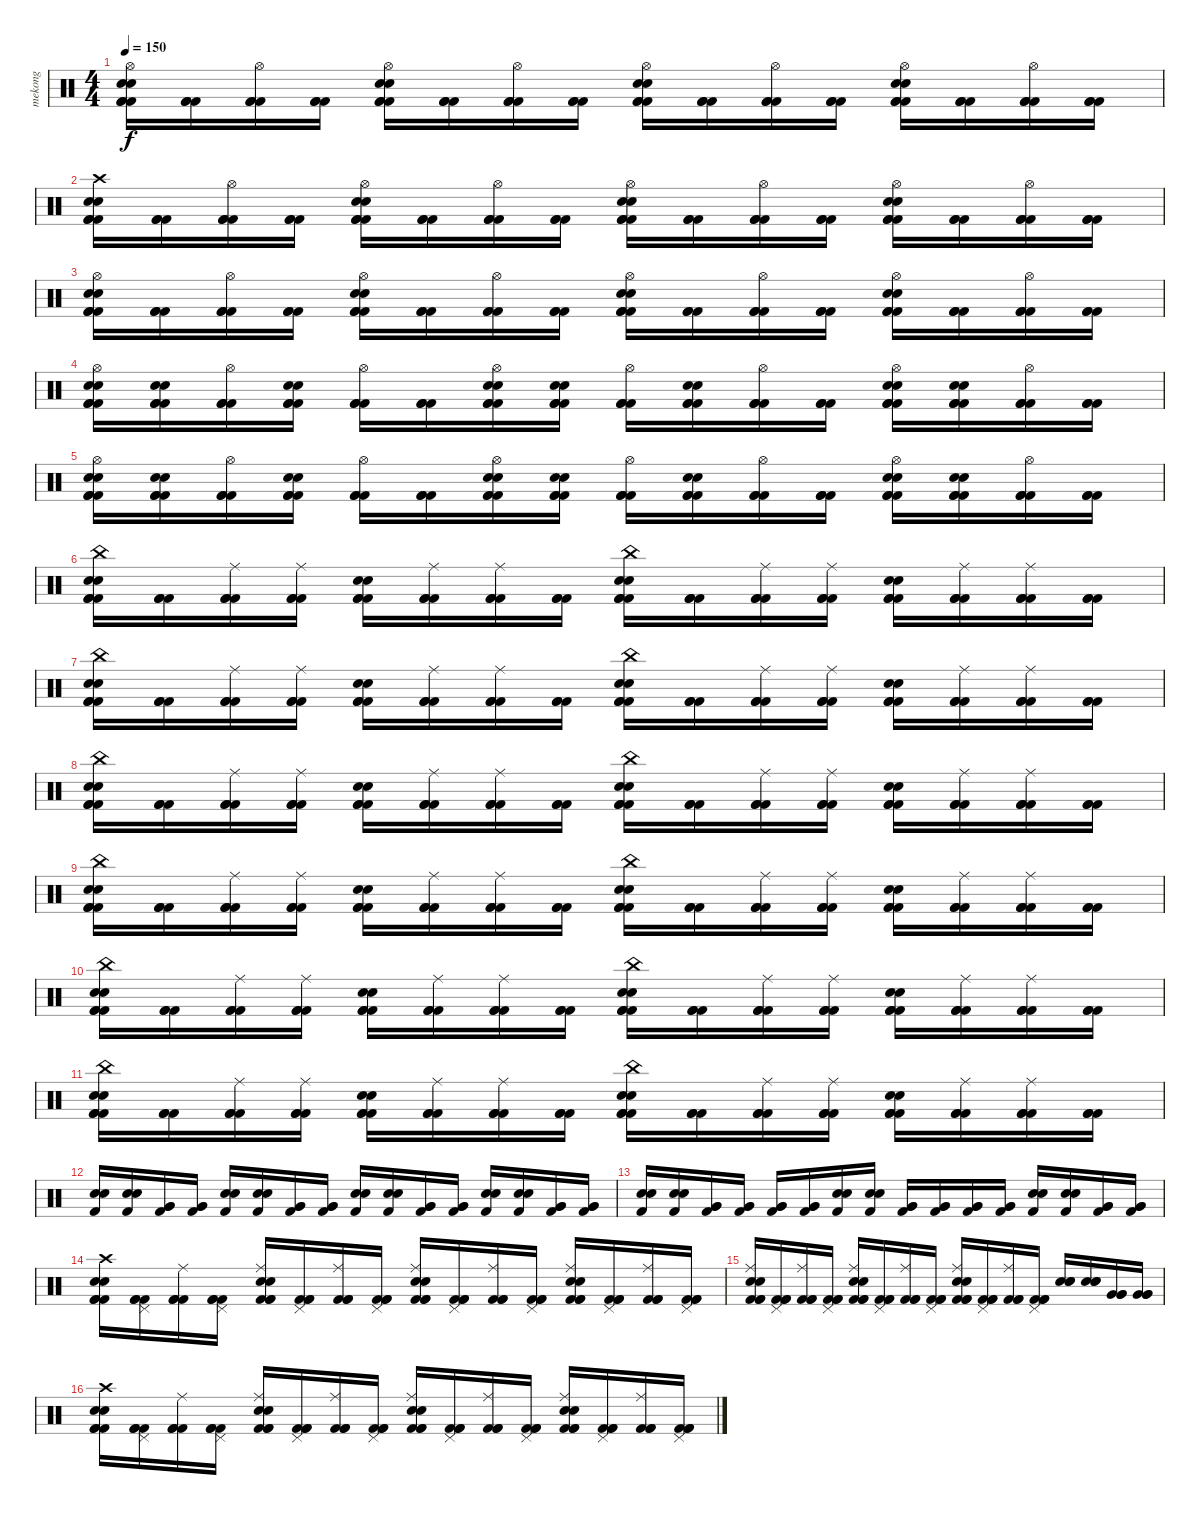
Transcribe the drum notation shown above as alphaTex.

\track ("mekong" "mekong") {instrument percussion}
\staff {score}
\articulation defaults
\ts (4 4)
\tempo 150
\clef neutral
\ks c
("Electric Snare (hit)" "Electric Snare (hit)" "Hi-Hat (open)" "Kick (hit) 2" "Kick (hit) 2" "Kick (hit) 2").16{dy f} ("Kick (hit) 2" "Kick (hit) 2" "Kick (hit) 2").16 ("Hi-Hat (open)" "Kick (hit) 2" "Kick (hit) 2" "Kick (hit) 2").16 ("Kick (hit) 2" "Kick (hit) 2" "Kick (hit) 2").16 ("Electric Snare (hit)" "Electric Snare (hit)" "Hi-Hat (open)" "Kick (hit) 2" "Kick (hit) 2" "Kick (hit) 2").16 ("Kick (hit) 2" "Kick (hit) 2" "Kick (hit) 2").16 ("Hi-Hat (open)" "Kick (hit) 2" "Kick (hit) 2" "Kick (hit) 2").16 ("Kick (hit) 2" "Kick (hit) 2" "Kick (hit) 2").16 ("Electric Snare (hit)" "Electric Snare (hit)" "Hi-Hat (open)" "Kick (hit) 2" "Kick (hit) 2" "Kick (hit) 2").16 ("Kick (hit) 2" "Kick (hit) 2" "Kick (hit) 2").16 ("Hi-Hat (open)" "Kick (hit) 2" "Kick (hit) 2" "Kick (hit) 2").16 ("Kick (hit) 2" "Kick (hit) 2" "Kick (hit) 2").16 ("Electric Snare (hit)" "Electric Snare (hit)" "Hi-Hat (open)" "Kick (hit) 2" "Kick (hit) 2" "Kick (hit) 2").16 ("Kick (hit) 2" "Kick (hit) 2" "Kick (hit) 2").16 ("Hi-Hat (open)" "Kick (hit) 2" "Kick (hit) 2" "Kick (hit) 2").16 ("Kick (hit) 2" "Kick (hit) 2" "Kick (hit) 2").16 |
("Electric Snare (hit)" "Electric Snare (hit)" "Crash high (hit)" "Kick (hit) 2" "Kick (hit) 2" "Kick (hit) 2").16 ("Kick (hit) 2" "Kick (hit) 2" "Kick (hit) 2").16 ("Hi-Hat (open)" "Kick (hit) 2" "Kick (hit) 2" "Kick (hit) 2").16 ("Kick (hit) 2" "Kick (hit) 2" "Kick (hit) 2").16 ("Electric Snare (hit)" "Electric Snare (hit)" "Hi-Hat (open)" "Kick (hit) 2" "Kick (hit) 2" "Kick (hit) 2").16 ("Kick (hit) 2" "Kick (hit) 2" "Kick (hit) 2").16 ("Hi-Hat (open)" "Kick (hit) 2" "Kick (hit) 2" "Kick (hit) 2").16 ("Kick (hit) 2" "Kick (hit) 2" "Kick (hit) 2").16 ("Electric Snare (hit)" "Electric Snare (hit)" "Hi-Hat (open)" "Kick (hit) 2" "Kick (hit) 2" "Kick (hit) 2").16 ("Kick (hit) 2" "Kick (hit) 2" "Kick (hit) 2").16 ("Hi-Hat (open)" "Kick (hit) 2" "Kick (hit) 2" "Kick (hit) 2").16 ("Kick (hit) 2" "Kick (hit) 2" "Kick (hit) 2").16 ("Electric Snare (hit)" "Electric Snare (hit)" "Hi-Hat (open)" "Kick (hit) 2" "Kick (hit) 2" "Kick (hit) 2").16 ("Kick (hit) 2" "Kick (hit) 2" "Kick (hit) 2").16 ("Hi-Hat (open)" "Kick (hit) 2" "Kick (hit) 2" "Kick (hit) 2").16 ("Kick (hit) 2" "Kick (hit) 2" "Kick (hit) 2").16 |
("Electric Snare (hit)" "Electric Snare (hit)" "Hi-Hat (open)" "Kick (hit) 2" "Kick (hit) 2" "Kick (hit) 2").16 ("Kick (hit) 2" "Kick (hit) 2" "Kick (hit) 2").16 ("Hi-Hat (open)" "Kick (hit) 2" "Kick (hit) 2" "Kick (hit) 2").16 ("Kick (hit) 2" "Kick (hit) 2" "Kick (hit) 2").16 ("Electric Snare (hit)" "Electric Snare (hit)" "Hi-Hat (open)" "Kick (hit) 2" "Kick (hit) 2" "Kick (hit) 2").16 ("Kick (hit) 2" "Kick (hit) 2" "Kick (hit) 2").16 ("Hi-Hat (open)" "Kick (hit) 2" "Kick (hit) 2" "Kick (hit) 2").16 ("Kick (hit) 2" "Kick (hit) 2" "Kick (hit) 2").16 ("Electric Snare (hit)" "Electric Snare (hit)" "Hi-Hat (open)" "Kick (hit) 2" "Kick (hit) 2" "Kick (hit) 2").16 ("Kick (hit) 2" "Kick (hit) 2" "Kick (hit) 2").16 ("Hi-Hat (open)" "Kick (hit) 2" "Kick (hit) 2" "Kick (hit) 2").16 ("Kick (hit) 2" "Kick (hit) 2" "Kick (hit) 2").16 ("Electric Snare (hit)" "Electric Snare (hit)" "Hi-Hat (open)" "Kick (hit) 2" "Kick (hit) 2" "Kick (hit) 2").16 ("Kick (hit) 2" "Kick (hit) 2" "Kick (hit) 2").16 ("Hi-Hat (open)" "Kick (hit) 2" "Kick (hit) 2" "Kick (hit) 2").16 ("Kick (hit) 2" "Kick (hit) 2" "Kick (hit) 2").16 |
("Electric Snare (hit)" "Electric Snare (hit)" "Hi-Hat (open)" "Kick (hit) 2" "Kick (hit) 2" "Kick (hit) 2").16 ("Electric Snare (hit)" "Electric Snare (hit)" "Kick (hit) 2" "Kick (hit) 2" "Kick (hit) 2").16 ("Hi-Hat (open)" "Kick (hit) 2" "Kick (hit) 2" "Kick (hit) 2").16 ("Electric Snare (hit)" "Electric Snare (hit)" "Kick (hit) 2" "Kick (hit) 2" "Kick (hit) 2").16 ("Hi-Hat (open)" "Kick (hit) 2" "Kick (hit) 2" "Kick (hit) 2").16 ("Kick (hit) 2" "Kick (hit) 2" "Kick (hit) 2").16 ("Electric Snare (hit)" "Electric Snare (hit)" "Hi-Hat (open)" "Kick (hit) 2" "Kick (hit) 2" "Kick (hit) 2").16 ("Electric Snare (hit)" "Electric Snare (hit)" "Kick (hit) 2" "Kick (hit) 2" "Kick (hit) 2").16 ("Hi-Hat (open)" "Kick (hit) 2" "Kick (hit) 2" "Kick (hit) 2").16 ("Electric Snare (hit)" "Electric Snare (hit)" "Kick (hit) 2" "Kick (hit) 2" "Kick (hit) 2").16 ("Hi-Hat (open)" "Kick (hit) 2" "Kick (hit) 2" "Kick (hit) 2").16 ("Kick (hit) 2" "Kick (hit) 2" "Kick (hit) 2").16 ("Electric Snare (hit)" "Electric Snare (hit)" "Hi-Hat (open)" "Kick (hit) 2" "Kick (hit) 2" "Kick (hit) 2").16 ("Electric Snare (hit)" "Electric Snare (hit)" "Kick (hit) 2" "Kick (hit) 2" "Kick (hit) 2").16 ("Hi-Hat (open)" "Kick (hit) 2" "Kick (hit) 2" "Kick (hit) 2").16 ("Kick (hit) 2" "Kick (hit) 2" "Kick (hit) 2").16 |
("Electric Snare (hit)" "Electric Snare (hit)" "Hi-Hat (open)" "Kick (hit) 2" "Kick (hit) 2" "Kick (hit) 2").16 ("Electric Snare (hit)" "Electric Snare (hit)" "Kick (hit) 2" "Kick (hit) 2" "Kick (hit) 2").16 ("Hi-Hat (open)" "Kick (hit) 2" "Kick (hit) 2" "Kick (hit) 2").16 ("Electric Snare (hit)" "Electric Snare (hit)" "Kick (hit) 2" "Kick (hit) 2" "Kick (hit) 2").16 ("Hi-Hat (open)" "Kick (hit) 2" "Kick (hit) 2" "Kick (hit) 2").16 ("Kick (hit) 2" "Kick (hit) 2" "Kick (hit) 2").16 ("Electric Snare (hit)" "Electric Snare (hit)" "Hi-Hat (open)" "Kick (hit) 2" "Kick (hit) 2" "Kick (hit) 2").16 ("Electric Snare (hit)" "Electric Snare (hit)" "Kick (hit) 2" "Kick (hit) 2" "Kick (hit) 2").16 ("Hi-Hat (open)" "Kick (hit) 2" "Kick (hit) 2" "Kick (hit) 2").16 ("Electric Snare (hit)" "Electric Snare (hit)" "Kick (hit) 2" "Kick (hit) 2" "Kick (hit) 2").16 ("Hi-Hat (open)" "Kick (hit) 2" "Kick (hit) 2" "Kick (hit) 2").16 ("Kick (hit) 2" "Kick (hit) 2" "Kick (hit) 2").16 ("Electric Snare (hit)" "Electric Snare (hit)" "Hi-Hat (open)" "Kick (hit) 2" "Kick (hit) 2" "Kick (hit) 2").16 ("Electric Snare (hit)" "Electric Snare (hit)" "Kick (hit) 2" "Kick (hit) 2" "Kick (hit) 2").16 ("Hi-Hat (open)" "Kick (hit) 2" "Kick (hit) 2" "Kick (hit) 2").16 ("Kick (hit) 2" "Kick (hit) 2" "Kick (hit) 2").16 |
("Electric Snare (hit)" "Electric Snare (hit)" "China (hit)" "Kick (hit) 2" "Kick (hit) 2" "Kick (hit) 2").16 ("Kick (hit) 2" "Kick (hit) 2" "Kick (hit) 2").16 ("Ride (middle)" "Kick (hit) 2" "Kick (hit) 2" "Kick (hit) 2").16 ("Ride (middle)" "Kick (hit) 2" "Kick (hit) 2" "Kick (hit) 2").16 ("Electric Snare (hit)" "Electric Snare (hit)" "Kick (hit) 2" "Kick (hit) 2" "Kick (hit) 2").16 ("Ride (middle)" "Kick (hit) 2" "Kick (hit) 2" "Kick (hit) 2").16 ("Ride (middle)" "Kick (hit) 2" "Kick (hit) 2" "Kick (hit) 2").16 ("Kick (hit) 2" "Kick (hit) 2" "Kick (hit) 2").16 ("Electric Snare (hit)" "Electric Snare (hit)" "China (hit)" "Kick (hit) 2" "Kick (hit) 2" "Kick (hit) 2").16 ("Kick (hit) 2" "Kick (hit) 2" "Kick (hit) 2").16 ("Ride (middle)" "Kick (hit) 2" "Kick (hit) 2" "Kick (hit) 2").16 ("Ride (middle)" "Kick (hit) 2" "Kick (hit) 2" "Kick (hit) 2").16 ("Electric Snare (hit)" "Electric Snare (hit)" "Kick (hit) 2" "Kick (hit) 2" "Kick (hit) 2").16 ("Ride (middle)" "Kick (hit) 2" "Kick (hit) 2" "Kick (hit) 2").16 ("Ride (middle)" "Kick (hit) 2" "Kick (hit) 2" "Kick (hit) 2").16 ("Kick (hit) 2" "Kick (hit) 2" "Kick (hit) 2").16 |
("Electric Snare (hit)" "Electric Snare (hit)" "China (hit)" "Kick (hit) 2" "Kick (hit) 2" "Kick (hit) 2").16 ("Kick (hit) 2" "Kick (hit) 2" "Kick (hit) 2").16 ("Ride (middle)" "Kick (hit) 2" "Kick (hit) 2" "Kick (hit) 2").16 ("Ride (middle)" "Kick (hit) 2" "Kick (hit) 2" "Kick (hit) 2").16 ("Electric Snare (hit)" "Electric Snare (hit)" "Kick (hit) 2" "Kick (hit) 2" "Kick (hit) 2").16 ("Ride (middle)" "Kick (hit) 2" "Kick (hit) 2" "Kick (hit) 2").16 ("Ride (middle)" "Kick (hit) 2" "Kick (hit) 2" "Kick (hit) 2").16 ("Kick (hit) 2" "Kick (hit) 2" "Kick (hit) 2").16 ("Electric Snare (hit)" "Electric Snare (hit)" "China (hit)" "Kick (hit) 2" "Kick (hit) 2" "Kick (hit) 2").16 ("Kick (hit) 2" "Kick (hit) 2" "Kick (hit) 2").16 ("Ride (middle)" "Kick (hit) 2" "Kick (hit) 2" "Kick (hit) 2").16 ("Ride (middle)" "Kick (hit) 2" "Kick (hit) 2" "Kick (hit) 2").16 ("Electric Snare (hit)" "Electric Snare (hit)" "Kick (hit) 2" "Kick (hit) 2" "Kick (hit) 2").16 ("Ride (middle)" "Kick (hit) 2" "Kick (hit) 2" "Kick (hit) 2").16 ("Ride (middle)" "Kick (hit) 2" "Kick (hit) 2" "Kick (hit) 2").16 ("Kick (hit) 2" "Kick (hit) 2" "Kick (hit) 2").16 |
("Electric Snare (hit)" "Electric Snare (hit)" "China (hit)" "Kick (hit) 2" "Kick (hit) 2" "Kick (hit) 2").16 ("Kick (hit) 2" "Kick (hit) 2" "Kick (hit) 2").16 ("Ride (middle)" "Kick (hit) 2" "Kick (hit) 2" "Kick (hit) 2").16 ("Ride (middle)" "Kick (hit) 2" "Kick (hit) 2" "Kick (hit) 2").16 ("Electric Snare (hit)" "Electric Snare (hit)" "Kick (hit) 2" "Kick (hit) 2" "Kick (hit) 2").16 ("Ride (middle)" "Kick (hit) 2" "Kick (hit) 2" "Kick (hit) 2").16 ("Ride (middle)" "Kick (hit) 2" "Kick (hit) 2" "Kick (hit) 2").16 ("Kick (hit) 2" "Kick (hit) 2" "Kick (hit) 2").16 ("Electric Snare (hit)" "Electric Snare (hit)" "China (hit)" "Kick (hit) 2" "Kick (hit) 2" "Kick (hit) 2").16 ("Kick (hit) 2" "Kick (hit) 2" "Kick (hit) 2").16 ("Ride (middle)" "Kick (hit) 2" "Kick (hit) 2" "Kick (hit) 2").16 ("Ride (middle)" "Kick (hit) 2" "Kick (hit) 2" "Kick (hit) 2").16 ("Electric Snare (hit)" "Electric Snare (hit)" "Kick (hit) 2" "Kick (hit) 2" "Kick (hit) 2").16 ("Ride (middle)" "Kick (hit) 2" "Kick (hit) 2" "Kick (hit) 2").16 ("Ride (middle)" "Kick (hit) 2" "Kick (hit) 2" "Kick (hit) 2").16 ("Kick (hit) 2" "Kick (hit) 2" "Kick (hit) 2").16 |
("Electric Snare (hit)" "Electric Snare (hit)" "China (hit)" "Kick (hit) 2" "Kick (hit) 2" "Kick (hit) 2").16 ("Kick (hit) 2" "Kick (hit) 2" "Kick (hit) 2").16 ("Ride (middle)" "Kick (hit) 2" "Kick (hit) 2" "Kick (hit) 2").16 ("Ride (middle)" "Kick (hit) 2" "Kick (hit) 2" "Kick (hit) 2").16 ("Electric Snare (hit)" "Electric Snare (hit)" "Kick (hit) 2" "Kick (hit) 2" "Kick (hit) 2").16 ("Ride (middle)" "Kick (hit) 2" "Kick (hit) 2" "Kick (hit) 2").16 ("Ride (middle)" "Kick (hit) 2" "Kick (hit) 2" "Kick (hit) 2").16 ("Kick (hit) 2" "Kick (hit) 2" "Kick (hit) 2").16 ("Electric Snare (hit)" "Electric Snare (hit)" "China (hit)" "Kick (hit) 2" "Kick (hit) 2" "Kick (hit) 2").16 ("Kick (hit) 2" "Kick (hit) 2" "Kick (hit) 2").16 ("Ride (middle)" "Kick (hit) 2" "Kick (hit) 2" "Kick (hit) 2").16 ("Ride (middle)" "Kick (hit) 2" "Kick (hit) 2" "Kick (hit) 2").16 ("Electric Snare (hit)" "Electric Snare (hit)" "Kick (hit) 2" "Kick (hit) 2" "Kick (hit) 2").16 ("Ride (middle)" "Kick (hit) 2" "Kick (hit) 2" "Kick (hit) 2").16 ("Ride (middle)" "Kick (hit) 2" "Kick (hit) 2" "Kick (hit) 2").16 ("Kick (hit) 2" "Kick (hit) 2" "Kick (hit) 2").16 |
("Electric Snare (hit)" "Electric Snare (hit)" "China (hit)" "Kick (hit) 2" "Kick (hit) 2" "Kick (hit) 2").16 ("Kick (hit) 2" "Kick (hit) 2" "Kick (hit) 2").16 ("Ride (middle)" "Kick (hit) 2" "Kick (hit) 2" "Kick (hit) 2").16 ("Ride (middle)" "Kick (hit) 2" "Kick (hit) 2" "Kick (hit) 2").16 ("Electric Snare (hit)" "Electric Snare (hit)" "Kick (hit) 2" "Kick (hit) 2" "Kick (hit) 2").16 ("Ride (middle)" "Kick (hit) 2" "Kick (hit) 2" "Kick (hit) 2").16 ("Ride (middle)" "Kick (hit) 2" "Kick (hit) 2" "Kick (hit) 2").16 ("Kick (hit) 2" "Kick (hit) 2" "Kick (hit) 2").16 ("Electric Snare (hit)" "Electric Snare (hit)" "China (hit)" "Kick (hit) 2" "Kick (hit) 2" "Kick (hit) 2").16 ("Kick (hit) 2" "Kick (hit) 2" "Kick (hit) 2").16 ("Ride (middle)" "Kick (hit) 2" "Kick (hit) 2" "Kick (hit) 2").16 ("Ride (middle)" "Kick (hit) 2" "Kick (hit) 2" "Kick (hit) 2").16 ("Electric Snare (hit)" "Electric Snare (hit)" "Kick (hit) 2" "Kick (hit) 2" "Kick (hit) 2").16 ("Ride (middle)" "Kick (hit) 2" "Kick (hit) 2" "Kick (hit) 2").16 ("Ride (middle)" "Kick (hit) 2" "Kick (hit) 2" "Kick (hit) 2").16 ("Kick (hit) 2" "Kick (hit) 2" "Kick (hit) 2").16 |
("Electric Snare (hit)" "Electric Snare (hit)" "China (hit)" "Kick (hit) 2" "Kick (hit) 2" "Kick (hit) 2").16 ("Kick (hit) 2" "Kick (hit) 2" "Kick (hit) 2").16 ("Ride (middle)" "Kick (hit) 2" "Kick (hit) 2" "Kick (hit) 2").16 ("Ride (middle)" "Kick (hit) 2" "Kick (hit) 2" "Kick (hit) 2").16 ("Electric Snare (hit)" "Electric Snare (hit)" "Kick (hit) 2" "Kick (hit) 2" "Kick (hit) 2").16 ("Ride (middle)" "Kick (hit) 2" "Kick (hit) 2" "Kick (hit) 2").16 ("Ride (middle)" "Kick (hit) 2" "Kick (hit) 2" "Kick (hit) 2").16 ("Kick (hit) 2" "Kick (hit) 2" "Kick (hit) 2").16 ("Electric Snare (hit)" "Electric Snare (hit)" "China (hit)" "Kick (hit) 2" "Kick (hit) 2" "Kick (hit) 2").16 ("Kick (hit) 2" "Kick (hit) 2" "Kick (hit) 2").16 ("Ride (middle)" "Kick (hit) 2" "Kick (hit) 2" "Kick (hit) 2").16 ("Ride (middle)" "Kick (hit) 2" "Kick (hit) 2" "Kick (hit) 2").16 ("Electric Snare (hit)" "Electric Snare (hit)" "Kick (hit) 2" "Kick (hit) 2" "Kick (hit) 2").16 ("Ride (middle)" "Kick (hit) 2" "Kick (hit) 2" "Kick (hit) 2").16 ("Ride (middle)" "Kick (hit) 2" "Kick (hit) 2" "Kick (hit) 2").16 ("Kick (hit) 2" "Kick (hit) 2" "Kick (hit) 2").16 |
("Kick (hit) 2" "Electric Snare (hit)" "Electric Snare (hit)").16 ("Kick (hit) 2" "Electric Snare (hit)" "Electric Snare (hit)").16 ("Kick (hit) 2" "Very Low Tom (hit)" "Very Low Tom (hit)").16 ("Kick (hit) 2" "Very Low Tom (hit)" "Very Low Tom (hit)").16 ("Kick (hit) 2" "Electric Snare (hit)" "Electric Snare (hit)").16 ("Kick (hit) 2" "Electric Snare (hit)" "Electric Snare (hit)").16 ("Kick (hit) 2" "Very Low Tom (hit)" "Very Low Tom (hit)").16 ("Kick (hit) 2" "Very Low Tom (hit)" "Very Low Tom (hit)").16 ("Kick (hit) 2" "Electric Snare (hit)" "Electric Snare (hit)").16 ("Kick (hit) 2" "Electric Snare (hit)" "Electric Snare (hit)").16 ("Kick (hit) 2" "Very Low Tom (hit)" "Very Low Tom (hit)").16 ("Kick (hit) 2" "Very Low Tom (hit)" "Very Low Tom (hit)").16 ("Kick (hit) 2" "Electric Snare (hit)" "Electric Snare (hit)").16 ("Kick (hit) 2" "Electric Snare (hit)" "Electric Snare (hit)").16 ("Kick (hit) 2" "Very Low Tom (hit)" "Very Low Tom (hit)").16 ("Kick (hit) 2" "Very Low Tom (hit)" "Very Low Tom (hit)").16 |
("Kick (hit) 2" "Electric Snare (hit)" "Electric Snare (hit)").16 ("Kick (hit) 2" "Electric Snare (hit)" "Electric Snare (hit)").16 ("Kick (hit) 2" "Very Low Tom (hit)" "Very Low Tom (hit)").16 ("Kick (hit) 2" "Very Low Tom (hit)" "Very Low Tom (hit)").16 ("Kick (hit) 2" "Very Low Tom (hit)" "Very Low Tom (hit)").16 ("Kick (hit) 2" "Very Low Tom (hit)" "Very Low Tom (hit)").16 ("Kick (hit) 2" "Electric Snare (hit)" "Electric Snare (hit)").16 ("Kick (hit) 2" "Electric Snare (hit)" "Electric Snare (hit)").16 ("Kick (hit) 2" "Very Low Tom (hit)" "Very Low Tom (hit)").16 ("Kick (hit) 2" "Very Low Tom (hit)" "Very Low Tom (hit)").16 ("Kick (hit) 2" "Very Low Tom (hit)" "Very Low Tom (hit)").16 ("Kick (hit) 2" "Very Low Tom (hit)" "Very Low Tom (hit)").16 ("Kick (hit) 2" "Electric Snare (hit)" "Electric Snare (hit)").16 ("Kick (hit) 2" "Electric Snare (hit)" "Electric Snare (hit)").16 ("Kick (hit) 2" "Very Low Tom (hit)" "Very Low Tom (hit)").16 ("Kick (hit) 2" "Very Low Tom (hit)" "Very Low Tom (hit)").16 |
("Electric Snare (hit)" "Electric Snare (hit)" "Crash high (hit)" "Kick (hit) 2" "Kick (hit) 2" "Kick (hit) 2").16 ("Pedal Hi-Hat (hit)" "Kick (hit) 2" "Kick (hit) 2" "Kick (hit) 2").16 ("Ride (middle)" "Kick (hit) 2" "Kick (hit) 2" "Kick (hit) 2").16 ("Pedal Hi-Hat (hit)" "Kick (hit) 2" "Kick (hit) 2" "Kick (hit) 2").16 ("Electric Snare (hit)" "Electric Snare (hit)" "Ride (middle)" "Kick (hit) 2" "Kick (hit) 2" "Kick (hit) 2").16 ("Pedal Hi-Hat (hit)" "Kick (hit) 2" "Kick (hit) 2" "Kick (hit) 2").16 ("Ride (middle)" "Kick (hit) 2" "Kick (hit) 2" "Kick (hit) 2").16 ("Pedal Hi-Hat (hit)" "Kick (hit) 2" "Kick (hit) 2" "Kick (hit) 2").16 ("Electric Snare (hit)" "Electric Snare (hit)" "Ride (middle)" "Kick (hit) 2" "Kick (hit) 2" "Kick (hit) 2").16 ("Pedal Hi-Hat (hit)" "Kick (hit) 2" "Kick (hit) 2" "Kick (hit) 2").16 ("Ride (middle)" "Kick (hit) 2" "Kick (hit) 2" "Kick (hit) 2").16 ("Pedal Hi-Hat (hit)" "Kick (hit) 2" "Kick (hit) 2" "Kick (hit) 2").16 ("Electric Snare (hit)" "Electric Snare (hit)" "Ride (middle)" "Kick (hit) 2" "Kick (hit) 2" "Kick (hit) 2").16 ("Pedal Hi-Hat (hit)" "Kick (hit) 2" "Kick (hit) 2" "Kick (hit) 2").16 ("Ride (middle)" "Kick (hit) 2" "Kick (hit) 2" "Kick (hit) 2").16 ("Pedal Hi-Hat (hit)" "Kick (hit) 2" "Kick (hit) 2" "Kick (hit) 2").16 |
("Electric Snare (hit)" "Electric Snare (hit)" "Ride (middle)" "Kick (hit) 2" "Kick (hit) 2" "Kick (hit) 2").16 ("Pedal Hi-Hat (hit)" "Kick (hit) 2" "Kick (hit) 2" "Kick (hit) 2").16 ("Ride (middle)" "Kick (hit) 2" "Kick (hit) 2" "Kick (hit) 2").16 ("Pedal Hi-Hat (hit)" "Kick (hit) 2" "Kick (hit) 2" "Kick (hit) 2").16 ("Electric Snare (hit)" "Electric Snare (hit)" "Ride (middle)" "Kick (hit) 2" "Kick (hit) 2" "Kick (hit) 2").16 ("Pedal Hi-Hat (hit)" "Kick (hit) 2" "Kick (hit) 2" "Kick (hit) 2").16 ("Ride (middle)" "Kick (hit) 2" "Kick (hit) 2" "Kick (hit) 2").16 ("Pedal Hi-Hat (hit)" "Kick (hit) 2" "Kick (hit) 2" "Kick (hit) 2").16 ("Electric Snare (hit)" "Electric Snare (hit)" "Ride (middle)" "Kick (hit) 2" "Kick (hit) 2" "Kick (hit) 2").16 ("Pedal Hi-Hat (hit)" "Kick (hit) 2" "Kick (hit) 2" "Kick (hit) 2").16 ("Ride (middle)" "Kick (hit) 2" "Kick (hit) 2" "Kick (hit) 2").16 ("Pedal Hi-Hat (hit)" "Kick (hit) 2" "Kick (hit) 2" "Kick (hit) 2").16 ("Electric Snare (hit)" "Electric Snare (hit)" "Electric Snare (hit)").16 ("Electric Snare (hit)" "Electric Snare (hit)" "Electric Snare (hit)").16 ("Very Low Tom (hit)" "Very Low Tom (hit)" "Very Low Tom (hit)").16 ("Very Low Tom (hit)" "Very Low Tom (hit)" "Very Low Tom (hit)").16 |
("Electric Snare (hit)" "Electric Snare (hit)" "Crash high (hit)" "Kick (hit) 2" "Kick (hit) 2" "Kick (hit) 2").16 ("Pedal Hi-Hat (hit)" "Kick (hit) 2" "Kick (hit) 2" "Kick (hit) 2").16 ("Ride (middle)" "Kick (hit) 2" "Kick (hit) 2" "Kick (hit) 2").16 ("Pedal Hi-Hat (hit)" "Kick (hit) 2" "Kick (hit) 2" "Kick (hit) 2").16 ("Electric Snare (hit)" "Electric Snare (hit)" "Ride (middle)" "Kick (hit) 2" "Kick (hit) 2" "Kick (hit) 2").16 ("Pedal Hi-Hat (hit)" "Kick (hit) 2" "Kick (hit) 2" "Kick (hit) 2").16 ("Ride (middle)" "Kick (hit) 2" "Kick (hit) 2" "Kick (hit) 2").16 ("Pedal Hi-Hat (hit)" "Kick (hit) 2" "Kick (hit) 2" "Kick (hit) 2").16 ("Electric Snare (hit)" "Electric Snare (hit)" "Ride (middle)" "Kick (hit) 2" "Kick (hit) 2" "Kick (hit) 2").16 ("Pedal Hi-Hat (hit)" "Kick (hit) 2" "Kick (hit) 2" "Kick (hit) 2").16 ("Ride (middle)" "Kick (hit) 2" "Kick (hit) 2" "Kick (hit) 2").16 ("Pedal Hi-Hat (hit)" "Kick (hit) 2" "Kick (hit) 2" "Kick (hit) 2").16 ("Electric Snare (hit)" "Electric Snare (hit)" "Ride (middle)" "Kick (hit) 2" "Kick (hit) 2" "Kick (hit) 2").16 ("Pedal Hi-Hat (hit)" "Kick (hit) 2" "Kick (hit) 2" "Kick (hit) 2").16 ("Ride (middle)" "Kick (hit) 2" "Kick (hit) 2" "Kick (hit) 2").16 ("Pedal Hi-Hat (hit)" "Kick (hit) 2" "Kick (hit) 2" "Kick (hit) 2").16
